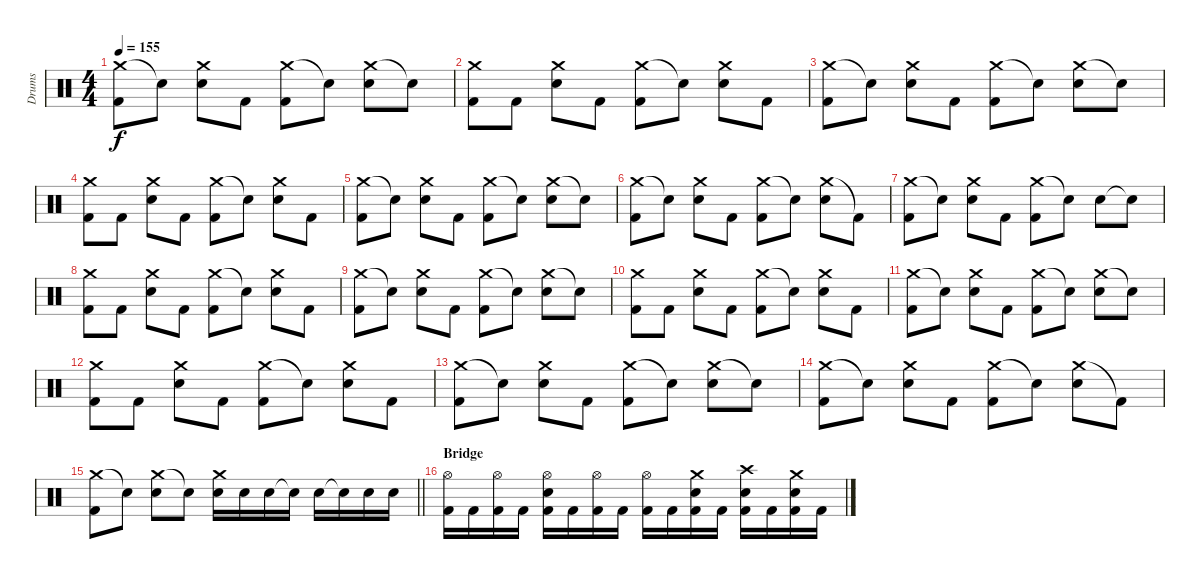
\track ("Drums" "Drums") {instrument percussion}
\staff {score}
\articulation defaults
\ts (4 4)
\tempo 155
\clef neutral
\ks c
("Crash medium (hit)" "Kick (hit) 2").8{dy f} "Snare (hit)"{t}.8 ("Crash medium (hit)" "Electric Snare (hit)").8 "Kick (hit) 2".8 ("Crash medium (hit)" "Kick (hit) 2").8 "Snare (hit)"{t}.8 ("Crash medium (hit)" "Electric Snare (hit)").8 "Snare (hit)"{t}.8 |
("Crash medium (hit)" "Kick (hit) 2").8 "Kick (hit) 2".8 ("Crash medium (hit)" "Electric Snare (hit)").8 "Kick (hit) 2".8 ("Crash medium (hit)" "Kick (hit) 2").8 "Snare (hit)"{t}.8 ("Crash medium (hit)" "Electric Snare (hit)").8 "Kick (hit) 2".8 |
("Crash medium (hit)" "Kick (hit) 2").8 "Snare (hit)"{t}.8 ("Crash medium (hit)" "Electric Snare (hit)").8 "Kick (hit) 2".8 ("Crash medium (hit)" "Kick (hit) 2").8 "Snare (hit)"{t}.8 ("Crash medium (hit)" "Electric Snare (hit)").8 "Snare (hit)"{t}.8 |
("Crash medium (hit)" "Kick (hit) 2").8 "Kick (hit) 2".8 ("Crash medium (hit)" "Electric Snare (hit)").8 "Kick (hit) 2".8 ("Crash medium (hit)" "Kick (hit) 2").8 "Snare (hit)"{t}.8 ("Crash medium (hit)" "Electric Snare (hit)").8 "Kick (hit) 2".8 |
("Crash medium (hit)" "Kick (hit) 2").8 "Snare (hit)"{t}.8 ("Crash medium (hit)" "Electric Snare (hit)").8 "Kick (hit) 2".8 ("Crash medium (hit)" "Kick (hit) 2").8 "Snare (hit)"{t}.8 ("Crash medium (hit)" "Electric Snare (hit)").8 "Snare (hit)"{t}.8 |
("Crash medium (hit)" "Kick (hit) 2").8 "Snare (hit)"{t}.8 ("Crash medium (hit)" "Electric Snare (hit)").8 "Kick (hit) 2".8 ("Crash medium (hit)" "Kick (hit) 2").8 "Snare (hit)"{t}.8 ("Crash medium (hit)" "Electric Snare (hit)").8 "Kick (hit) 2"{t}.8 |
("Crash medium (hit)" "Kick (hit) 2").8 "Electric Snare (hit)"{t}.8 ("Crash medium (hit)" "Electric Snare (hit)").8 "Kick (hit) 2".8 ("Crash medium (hit)" "Kick (hit) 2").8 "Electric Snare (hit)"{t}.8 "Electric Snare (hit)".8 "Snare (hit)"{t}.8 |
("Crash medium (hit)" "Kick (hit) 2").8 "Kick (hit) 2".8 ("Crash medium (hit)" "Electric Snare (hit)").8 "Kick (hit) 2".8 ("Crash medium (hit)" "Kick (hit) 2").8 "Snare (hit)"{t}.8 ("Crash medium (hit)" "Electric Snare (hit)").8 "Kick (hit) 2".8 |
("Crash medium (hit)" "Kick (hit) 2").8 "Snare (hit)"{t}.8 ("Crash medium (hit)" "Electric Snare (hit)").8 "Kick (hit) 2".8 ("Crash medium (hit)" "Kick (hit) 2").8 "Snare (hit)"{t}.8 ("Crash medium (hit)" "Electric Snare (hit)").8 "Snare (hit)"{t}.8 |
("Crash medium (hit)" "Kick (hit) 2").8 "Kick (hit) 2".8 ("Crash medium (hit)" "Electric Snare (hit)").8 "Kick (hit) 2".8 ("Crash medium (hit)" "Kick (hit) 2").8 "Snare (hit)"{t}.8 ("Crash medium (hit)" "Electric Snare (hit)").8 "Kick (hit) 2".8 |
("Crash medium (hit)" "Kick (hit) 2").8 "Snare (hit)"{t}.8 ("Crash medium (hit)" "Electric Snare (hit)").8 "Kick (hit) 2".8 ("Crash medium (hit)" "Kick (hit) 2").8 "Snare (hit)"{t}.8 ("Crash medium (hit)" "Electric Snare (hit)").8 "Snare (hit)"{t}.8 |
("Crash medium (hit)" "Kick (hit) 2").8 "Kick (hit) 2".8 ("Crash medium (hit)" "Electric Snare (hit)").8 "Kick (hit) 2".8 ("Crash medium (hit)" "Kick (hit) 2").8 "Snare (hit)"{t}.8 ("Crash medium (hit)" "Electric Snare (hit)").8 "Kick (hit) 2".8 |
("Crash medium (hit)" "Kick (hit) 2").8 "Snare (hit)"{t}.8 ("Crash medium (hit)" "Electric Snare (hit)").8 "Kick (hit) 2".8 ("Crash medium (hit)" "Kick (hit) 2").8 "Snare (hit)"{t}.8 ("Crash medium (hit)" "Electric Snare (hit)").8 "Snare (hit)"{t}.8 |
("Crash medium (hit)" "Kick (hit) 2").8 "Snare (hit)"{t}.8 ("Crash medium (hit)" "Electric Snare (hit)").8 "Kick (hit) 2".8 ("Crash medium (hit)" "Kick (hit) 2").8 "Snare (hit)"{t}.8 ("Crash medium (hit)" "Electric Snare (hit)").8 "Kick (hit) 2"{t}.8 |
\barLineRight lightlight
("Crash medium (hit)" "Kick (hit) 2").8 "Snare (hit)"{t}.8 ("Crash medium (hit)" "Electric Snare (hit)").8 "Snare (hit)"{t}.8 ("Crash medium (hit)" "Electric Snare (hit)").16 "Electric Snare (hit)".16 "Electric Snare (hit)".16 "Electric Snare (hit)"{t}.16 "Electric Snare (hit)".16 "Electric Snare (hit)"{t}.16 "Electric Snare (hit)".16 "Electric Snare (hit)".16 |
\section ("" "Bridge")
("Hi-Hat (open)" "Kick (hit) 2").16 "Kick (hit) 2".16 ("Hi-Hat (open)" "Kick (hit) 2").16 "Kick (hit) 2".16 ("Hi-Hat (open)" "Electric Snare (hit)" "Kick (hit) 2").16 "Kick (hit) 2".16 ("Hi-Hat (open)" "Kick (hit) 2").16 "Kick (hit) 2".16 ("Hi-Hat (open)" "Kick (hit) 2").16 "Kick (hit) 2".16 ("Crash medium (hit)" "Electric Snare (hit)" "Kick (hit) 2").16 "Kick (hit) 2".16 ("Crash high (hit)" "Electric Snare (hit)" "Kick (hit) 2").16 "Kick (hit) 2".16 ("Crash medium (hit)" "Electric Snare (hit)" "Kick (hit) 2").16 "Kick (hit) 2".16
